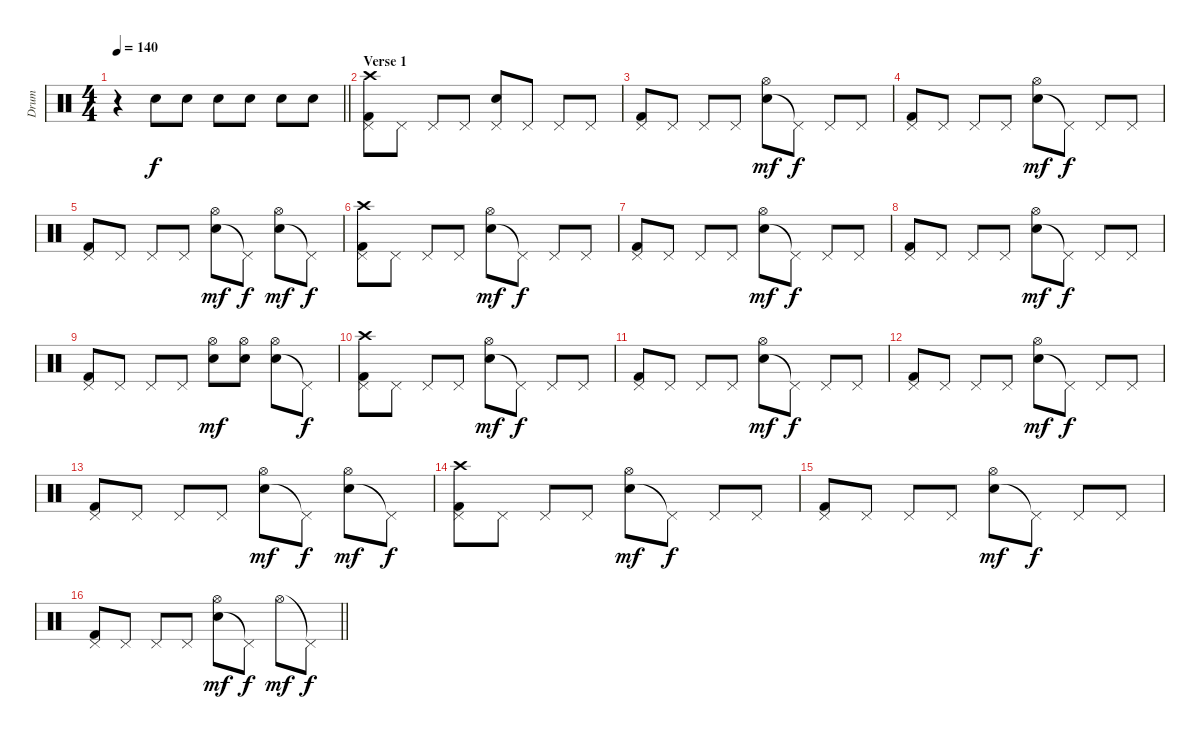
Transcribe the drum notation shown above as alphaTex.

\track ("Drum" "Drum") {instrument percussion}
\staff {score}
\articulation defaults
\ts (4 4)
\section ("" "")
\tempo 140
\clef neutral
\barLineRight lightlight
\ks c
r.4{dy f} "Electric Snare (hit)".8 "Electric Snare (hit)".8 "Electric Snare (hit)".8 "Electric Snare (hit)".8 "Electric Snare (hit)".8 "Electric Snare (hit)".8 |
\section ("" "Verse 1")
("Kick (hit) 2" "Pedal Hi-Hat (hit)" "Crash high (hit)").8 "Pedal Hi-Hat (hit)".8 "Pedal Hi-Hat (hit)".8 "Pedal Hi-Hat (hit)".8 ("Electric Snare (hit)" "Pedal Hi-Hat (hit)").8 "Pedal Hi-Hat (hit)".8 "Pedal Hi-Hat (hit)".8 "Pedal Hi-Hat (hit)".8 |
("Kick (hit) 2" "Pedal Hi-Hat (hit)").8 "Pedal Hi-Hat (hit)".8 "Pedal Hi-Hat (hit)".8 "Pedal Hi-Hat (hit)".8 ("Electric Snare (hit)" "Hi-Hat (open)").8{dy mf} "Pedal Hi-Hat (hit)"{t}.8{dy f} "Pedal Hi-Hat (hit)".8 "Pedal Hi-Hat (hit)".8 |
("Kick (hit) 2" "Pedal Hi-Hat (hit)").8 "Pedal Hi-Hat (hit)".8 "Pedal Hi-Hat (hit)".8 "Pedal Hi-Hat (hit)".8 ("Electric Snare (hit)" "Hi-Hat (open)").8{dy mf} "Pedal Hi-Hat (hit)"{t}.8{dy f} "Pedal Hi-Hat (hit)".8 "Pedal Hi-Hat (hit)".8 |
("Kick (hit) 2" "Pedal Hi-Hat (hit)").8 "Pedal Hi-Hat (hit)".8 "Pedal Hi-Hat (hit)".8 "Pedal Hi-Hat (hit)".8 ("Electric Snare (hit)" "Hi-Hat (open)").8{dy mf} "Pedal Hi-Hat (hit)"{t}.8{dy f} ("Electric Snare (hit)" "Hi-Hat (open)").8{dy mf} "Pedal Hi-Hat (hit)"{t}.8{dy f} |
("Kick (hit) 2" "Pedal Hi-Hat (hit)" "Crash high (hit)").8 "Pedal Hi-Hat (hit)".8 "Pedal Hi-Hat (hit)".8 "Pedal Hi-Hat (hit)".8 ("Electric Snare (hit)" "Hi-Hat (open)").8{dy mf} "Pedal Hi-Hat (hit)"{t}.8{dy f} "Pedal Hi-Hat (hit)".8 "Pedal Hi-Hat (hit)".8 |
("Kick (hit) 2" "Pedal Hi-Hat (hit)").8 "Pedal Hi-Hat (hit)".8 "Pedal Hi-Hat (hit)".8 "Pedal Hi-Hat (hit)".8 ("Electric Snare (hit)" "Hi-Hat (open)").8{dy mf} "Pedal Hi-Hat (hit)"{t}.8{dy f} "Pedal Hi-Hat (hit)".8 "Pedal Hi-Hat (hit)".8 |
("Kick (hit) 2" "Pedal Hi-Hat (hit)").8 "Pedal Hi-Hat (hit)".8 "Pedal Hi-Hat (hit)".8 "Pedal Hi-Hat (hit)".8 ("Electric Snare (hit)" "Hi-Hat (open)").8{dy mf} "Pedal Hi-Hat (hit)"{t}.8{dy f} "Pedal Hi-Hat (hit)".8 "Pedal Hi-Hat (hit)".8 |
("Kick (hit) 2" "Pedal Hi-Hat (hit)").8 "Pedal Hi-Hat (hit)".8 "Pedal Hi-Hat (hit)".8 "Pedal Hi-Hat (hit)".8 ("Electric Snare (hit)" "Hi-Hat (open)").8{dy mf} ("Electric Snare (hit)" "Hi-Hat (open)").8 ("Electric Snare (hit)" "Hi-Hat (open)").8 "Pedal Hi-Hat (hit)"{t}.8{dy f} |
("Kick (hit) 2" "Pedal Hi-Hat (hit)" "Crash high (hit)").8 "Pedal Hi-Hat (hit)".8 "Pedal Hi-Hat (hit)".8 "Pedal Hi-Hat (hit)".8 ("Electric Snare (hit)" "Hi-Hat (open)").8{dy mf} "Pedal Hi-Hat (hit)"{t}.8{dy f} "Pedal Hi-Hat (hit)".8 "Pedal Hi-Hat (hit)".8 |
("Kick (hit) 2" "Pedal Hi-Hat (hit)").8 "Pedal Hi-Hat (hit)".8 "Pedal Hi-Hat (hit)".8 "Pedal Hi-Hat (hit)".8 ("Electric Snare (hit)" "Hi-Hat (open)").8{dy mf} "Pedal Hi-Hat (hit)"{t}.8{dy f} "Pedal Hi-Hat (hit)".8 "Pedal Hi-Hat (hit)".8 |
("Kick (hit) 2" "Pedal Hi-Hat (hit)").8 "Pedal Hi-Hat (hit)".8 "Pedal Hi-Hat (hit)".8 "Pedal Hi-Hat (hit)".8 ("Electric Snare (hit)" "Hi-Hat (open)").8{dy mf} "Pedal Hi-Hat (hit)"{t}.8{dy f} "Pedal Hi-Hat (hit)".8 "Pedal Hi-Hat (hit)".8 |
("Kick (hit) 2" "Pedal Hi-Hat (hit)").8 "Pedal Hi-Hat (hit)".8 "Pedal Hi-Hat (hit)".8 "Pedal Hi-Hat (hit)".8 ("Electric Snare (hit)" "Hi-Hat (open)").8{dy mf} "Pedal Hi-Hat (hit)"{t}.8{dy f} ("Electric Snare (hit)" "Hi-Hat (open)").8{dy mf} "Pedal Hi-Hat (hit)"{t}.8{dy f} |
("Kick (hit) 2" "Pedal Hi-Hat (hit)" "Crash high (hit)").8 "Pedal Hi-Hat (hit)".8 "Pedal Hi-Hat (hit)".8 "Pedal Hi-Hat (hit)".8 ("Electric Snare (hit)" "Hi-Hat (open)").8{dy mf} "Pedal Hi-Hat (hit)"{t}.8{dy f} "Pedal Hi-Hat (hit)".8 "Pedal Hi-Hat (hit)".8 |
("Kick (hit) 2" "Pedal Hi-Hat (hit)").8 "Pedal Hi-Hat (hit)".8 "Pedal Hi-Hat (hit)".8 "Pedal Hi-Hat (hit)".8 ("Electric Snare (hit)" "Hi-Hat (open)").8{dy mf} "Pedal Hi-Hat (hit)"{t}.8{dy f} "Pedal Hi-Hat (hit)".8 "Pedal Hi-Hat (hit)".8 |
\barLineRight lightlight
("Kick (hit) 2" "Pedal Hi-Hat (hit)").8 "Pedal Hi-Hat (hit)".8 "Pedal Hi-Hat (hit)".8 "Pedal Hi-Hat (hit)".8 ("Electric Snare (hit)" "Hi-Hat (open)").8{dy mf} "Pedal Hi-Hat (hit)"{t}.8{dy f} "Hi-Hat (open)".8{dy mf} "Pedal Hi-Hat (hit)"{t}.8{dy f}
